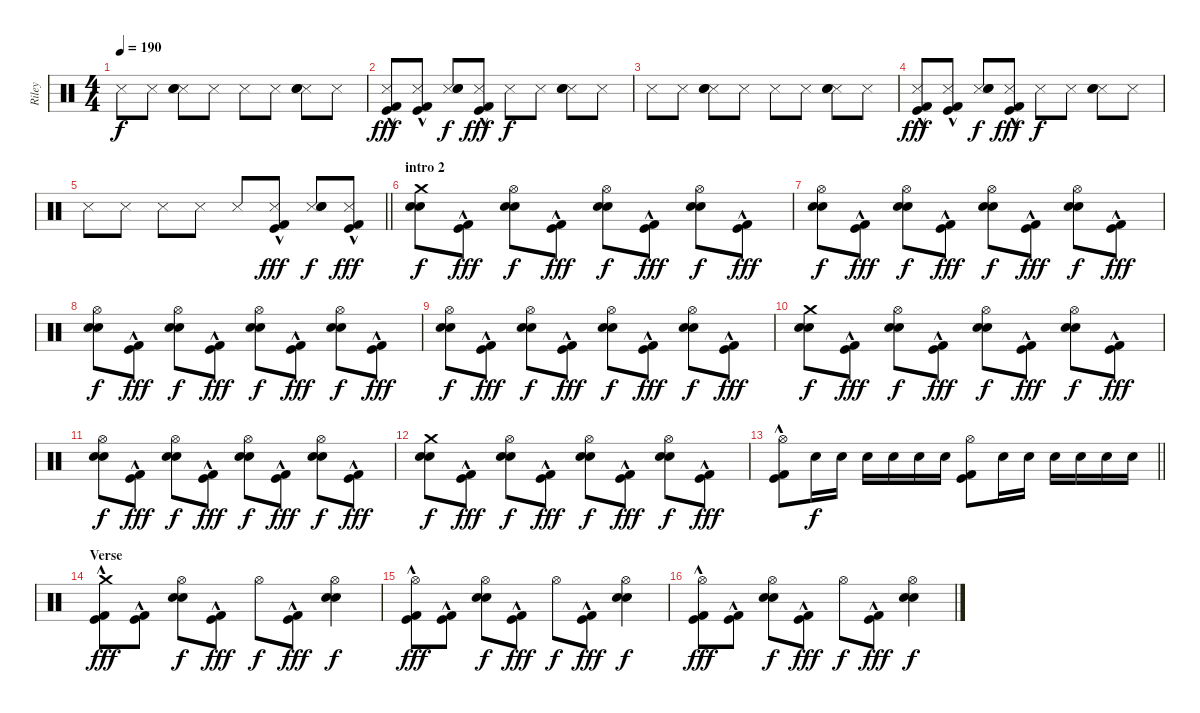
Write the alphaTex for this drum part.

\track ("Riley" "Riley") {instrument percussion}
\staff {score}
\articulation defaults
\ts (4 4)
\tempo 190
\clef neutral
\ks c "Snare (side stick) 3".8{dy f} "Snare (side stick) 3".8
("Snare (side stick) 3" "Electric Snare (hit)" "Snare (hit) 2").8 "Snare (side stick) 3".8 "Snare (side stick) 3".8 "Snare (side stick) 3".8 ("Snare (side stick) 3" "Electric Snare (hit)" "Snare (hit) 2").8 "Snare (side stick) 3".8 |
("Snare (side stick) 3" "Kick (hit)"{hac} "Kick (hit) 2"{hac}).8{dy fff} ("Snare (side stick) 3" "Kick (hit)"{hac} "Kick (hit) 2"{hac}).8 ("Snare (side stick) 3" "Electric Snare (hit)" "Snare (hit) 2").8{dy f} ("Snare (side stick) 3" "Kick (hit)"{hac} "Kick (hit) 2"{hac}).8{dy fff} "Snare (side stick) 3".8{dy f} "Snare (side stick) 3".8 ("Snare (side stick) 3" "Electric Snare (hit)" "Snare (hit) 2").8 "Snare (side stick) 3".8 |
"Snare (side stick) 3".8 "Snare (side stick) 3".8 ("Snare (side stick) 3" "Electric Snare (hit)" "Snare (hit) 2").8 "Snare (side stick) 3".8 "Snare (side stick) 3".8 "Snare (side stick) 3".8 ("Snare (side stick) 3" "Electric Snare (hit)" "Snare (hit) 2").8 "Snare (side stick) 3".8 |
("Snare (side stick) 3" "Kick (hit)"{hac} "Kick (hit) 2"{hac}).8{dy fff} ("Snare (side stick) 3" "Kick (hit)"{hac} "Kick (hit) 2"{hac}).8 ("Snare (side stick) 3" "Electric Snare (hit)" "Snare (hit) 2").8{dy f} ("Snare (side stick) 3" "Kick (hit)"{hac} "Kick (hit) 2"{hac}).8{dy fff} "Snare (side stick) 3".8{dy f} "Snare (side stick) 3".8 ("Snare (side stick) 3" "Electric Snare (hit)" "Snare (hit) 2").8 "Snare (side stick) 3".8 |
\barLineRight lightlight "Snare (side stick) 3".8 "Snare (side stick) 3".8 "Snare (side stick) 3".8 "Snare (side stick) 3".8 "Snare (side stick) 3".8
("Snare (side stick) 3" "Kick (hit)"{hac} "Kick (hit) 2"{hac}).8{dy fff} ("Snare (side stick) 3" "Electric Snare (hit)" "Snare (hit) 2").8{dy f} ("Snare (side stick) 3" "Kick (hit)"{hac} "Kick (hit) 2"{hac}).8{dy fff} |
\section ("" "intro 2")
("Crash medium (hit)" "Electric Snare (hit)" "Snare (hit) 2").8{dy f} ("Kick (hit)"{hac} "Kick (hit) 2"{hac}).8{dy fff} ("Hi-Hat (open)" "Electric Snare (hit)" "Snare (hit) 2").8{dy f} ("Kick (hit)"{hac} "Kick (hit) 2"{hac}).8{dy fff} ("Hi-Hat (open)" "Electric Snare (hit)" "Snare (hit) 2").8{dy f} ("Kick (hit)"{hac} "Kick (hit) 2"{hac}).8{dy fff} ("Hi-Hat (open)" "Electric Snare (hit)" "Snare (hit) 2").8{dy f} ("Kick (hit)"{hac} "Kick (hit) 2"{hac}).8{dy fff} |
("Hi-Hat (open)" "Electric Snare (hit)" "Snare (hit) 2").8{dy f} ("Kick (hit)"{hac} "Kick (hit) 2"{hac}).8{dy fff} ("Hi-Hat (open)" "Electric Snare (hit)" "Snare (hit) 2").8{dy f} ("Kick (hit)"{hac} "Kick (hit) 2"{hac}).8{dy fff} ("Hi-Hat (open)" "Electric Snare (hit)" "Snare (hit) 2").8{dy f} ("Kick (hit)"{hac} "Kick (hit) 2"{hac}).8{dy fff} ("Hi-Hat (open)" "Electric Snare (hit)" "Snare (hit) 2").8{dy f} ("Kick (hit)"{hac} "Kick (hit) 2"{hac}).8{dy fff} |
("Hi-Hat (open)" "Electric Snare (hit)" "Snare (hit) 2").8{dy f} ("Kick (hit)"{hac} "Kick (hit) 2"{hac}).8{dy fff} ("Hi-Hat (open)" "Electric Snare (hit)" "Snare (hit) 2").8{dy f} ("Kick (hit)"{hac} "Kick (hit) 2"{hac}).8{dy fff} ("Hi-Hat (open)" "Electric Snare (hit)" "Snare (hit) 2").8{dy f} ("Kick (hit)"{hac} "Kick (hit) 2"{hac}).8{dy fff} ("Hi-Hat (open)" "Electric Snare (hit)" "Snare (hit) 2").8{dy f} ("Kick (hit)"{hac} "Kick (hit) 2"{hac}).8{dy fff} |
("Hi-Hat (open)" "Electric Snare (hit)" "Snare (hit) 2").8{dy f} ("Kick (hit)"{hac} "Kick (hit) 2"{hac}).8{dy fff} ("Hi-Hat (open)" "Electric Snare (hit)" "Snare (hit) 2").8{dy f} ("Kick (hit)"{hac} "Kick (hit) 2"{hac}).8{dy fff} ("Hi-Hat (open)" "Electric Snare (hit)" "Snare (hit) 2").8{dy f} ("Kick (hit)"{hac} "Kick (hit) 2"{hac}).8{dy fff} ("Hi-Hat (open)" "Electric Snare (hit)" "Snare (hit) 2").8{dy f} ("Kick (hit)"{hac} "Kick (hit) 2"{hac}).8{dy fff} |
("Crash medium (hit)" "Electric Snare (hit)" "Snare (hit) 2").8{dy f} ("Kick (hit)"{hac} "Kick (hit) 2"{hac}).8{dy fff} ("Hi-Hat (open)" "Electric Snare (hit)" "Snare (hit) 2").8{dy f} ("Kick (hit)"{hac} "Kick (hit) 2"{hac}).8{dy fff} ("Hi-Hat (open)" "Electric Snare (hit)" "Snare (hit) 2").8{dy f} ("Kick (hit)"{hac} "Kick (hit) 2"{hac}).8{dy fff} ("Hi-Hat (open)" "Electric Snare (hit)" "Snare (hit) 2").8{dy f} ("Kick (hit)"{hac} "Kick (hit) 2"{hac}).8{dy fff} |
("Hi-Hat (open)" "Electric Snare (hit)" "Snare (hit) 2").8{dy f} ("Kick (hit)"{hac} "Kick (hit) 2"{hac}).8{dy fff} ("Hi-Hat (open)" "Electric Snare (hit)" "Snare (hit) 2").8{dy f} ("Kick (hit)"{hac} "Kick (hit) 2"{hac}).8{dy fff} ("Hi-Hat (open)" "Electric Snare (hit)" "Snare (hit) 2").8{dy f} ("Kick (hit)"{hac} "Kick (hit) 2"{hac}).8{dy fff} ("Hi-Hat (open)" "Electric Snare (hit)" "Snare (hit) 2").8{dy f} ("Kick (hit)"{hac} "Kick (hit) 2"{hac}).8{dy fff} |
("Crash medium (hit)" "Electric Snare (hit)" "Snare (hit) 2").8{dy f} ("Kick (hit)"{hac} "Kick (hit) 2"{hac}).8{dy fff} ("Hi-Hat (open)" "Electric Snare (hit)" "Snare (hit) 2").8{dy f} ("Kick (hit)"{hac} "Kick (hit) 2"{hac}).8{dy fff} ("Hi-Hat (open)" "Electric Snare (hit)" "Snare (hit) 2").8{dy f} ("Kick (hit)"{hac} "Kick (hit) 2"{hac}).8{dy fff} ("Hi-Hat (open)" "Electric Snare (hit)" "Snare (hit) 2").8{dy f} ("Kick (hit)"{hac} "Kick (hit) 2"{hac}).8{dy fff} |
\barLineRight lightlight
("Hi-Hat (open)" "Kick (hit)"{hac} "Kick (hit) 2"{hac}).8 "Electric Snare (hit)".16{dy f} "Electric Snare (hit)".16 "Electric Snare (hit)".16 "Electric Snare (hit)".16 "Electric Snare (hit)".16 "Electric Snare (hit)".16 ("Hi-Hat (open)" "Kick (hit)" "Kick (hit) 2").8 "Electric Snare (hit)".16 "Electric Snare (hit)".16 "Electric Snare (hit)".16 "Electric Snare (hit)".16 "Electric Snare (hit)".16 "Electric Snare (hit)".16 |
\section ("" "Verse")
("Crash medium (hit)" "Kick (hit)"{hac} "Kick (hit) 2"{hac}).8{dy fff} ("Kick (hit)"{hac} "Kick (hit) 2"{hac}).8 ("Hi-Hat (open)" "Electric Snare (hit)" "Snare (hit) 2").8{dy f} ("Kick (hit)"{hac} "Kick (hit) 2"{hac}).8{dy fff} "Hi-Hat (open)".8{dy f} ("Kick (hit)"{hac} "Kick (hit) 2"{hac}).8{dy fff} ("Hi-Hat (open)" "Electric Snare (hit)" "Snare (hit) 2").4{dy f} |
("Hi-Hat (open)" "Kick (hit)"{hac} "Kick (hit) 2"{hac}).8{dy fff} ("Kick (hit)"{hac} "Kick (hit) 2"{hac}).8 ("Hi-Hat (open)" "Electric Snare (hit)" "Snare (hit) 2").8{dy f} ("Kick (hit)"{hac} "Kick (hit) 2"{hac}).8{dy fff} "Hi-Hat (open)".8{dy f} ("Kick (hit)"{hac} "Kick (hit) 2"{hac}).8{dy fff} ("Hi-Hat (open)" "Electric Snare (hit)" "Snare (hit) 2").4{dy f} |
("Hi-Hat (open)" "Kick (hit)"{hac} "Kick (hit) 2"{hac}).8{dy fff} ("Kick (hit)"{hac} "Kick (hit) 2"{hac}).8 ("Hi-Hat (open)" "Electric Snare (hit)" "Snare (hit) 2").8{dy f} ("Kick (hit)"{hac} "Kick (hit) 2"{hac}).8{dy fff} "Hi-Hat (open)".8{dy f} ("Kick (hit)"{hac} "Kick (hit) 2"{hac}).8{dy fff} ("Hi-Hat (open)" "Electric Snare (hit)" "Snare (hit) 2").4{dy f}
